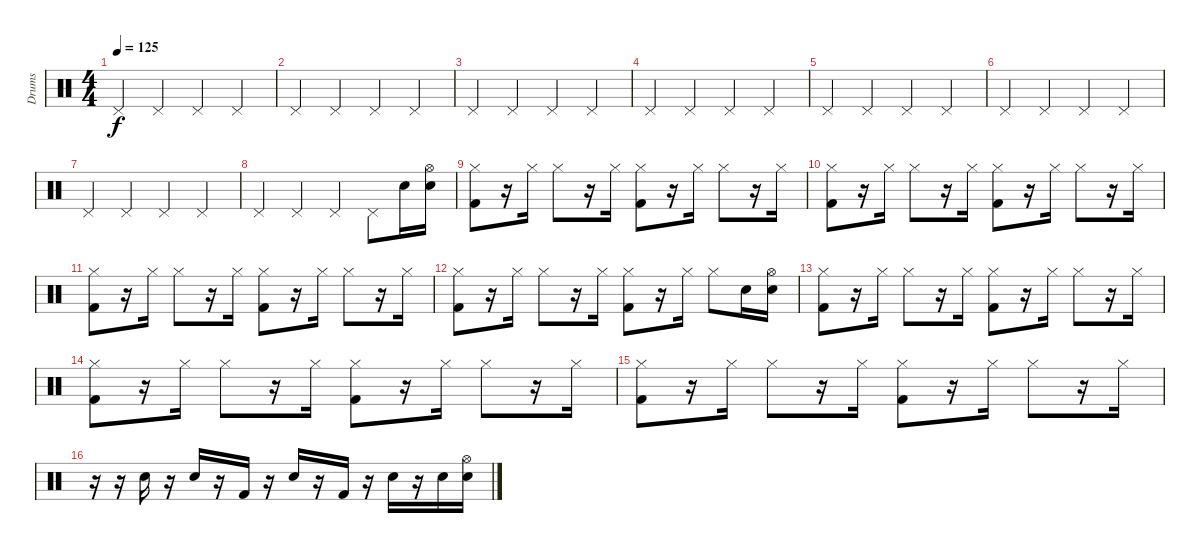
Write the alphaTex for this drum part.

\track ("Drums" "Drums") {instrument percussion}
\staff {score}
\articulation defaults
\ts (4 4)
\tempo 125
\clef neutral
\ks c "Pedal Hi-Hat (hit)".4{dy f} "Pedal Hi-Hat (hit)".4 "Pedal Hi-Hat (hit)".4 "Pedal Hi-Hat (hit)".4
|
"Pedal Hi-Hat (hit)".4 "Pedal Hi-Hat (hit)".4 "Pedal Hi-Hat (hit)".4 "Pedal Hi-Hat (hit)".4 |
"Pedal Hi-Hat (hit)".4 "Pedal Hi-Hat (hit)".4 "Pedal Hi-Hat (hit)".4 "Pedal Hi-Hat (hit)".4 |
"Pedal Hi-Hat (hit)".4 "Pedal Hi-Hat (hit)".4 "Pedal Hi-Hat (hit)".4 "Pedal Hi-Hat (hit)".4 |
"Pedal Hi-Hat (hit)".4 "Pedal Hi-Hat (hit)".4 "Pedal Hi-Hat (hit)".4 "Pedal Hi-Hat (hit)".4 |
"Pedal Hi-Hat (hit)".4 "Pedal Hi-Hat (hit)".4 "Pedal Hi-Hat (hit)".4 "Pedal Hi-Hat (hit)".4 |
"Pedal Hi-Hat (hit)".4 "Pedal Hi-Hat (hit)".4 "Pedal Hi-Hat (hit)".4 "Pedal Hi-Hat (hit)".4 |
"Pedal Hi-Hat (hit)".4 "Pedal Hi-Hat (hit)".4 "Pedal Hi-Hat (hit)".4 "Pedal Hi-Hat (hit)".8 "Electric Snare (hit)".16 ("Hi-Hat (open)" "Electric Snare (hit)").16 |
("Hi-Hat (closed)" "Kick (hit) 2").8 r.16 "Hi-Hat (closed)".16 "Hi-Hat (closed)".8 r.16 "Hi-Hat (closed)".16 ("Hi-Hat (closed)" "Kick (hit) 2").8 r.16 "Hi-Hat (closed)".16 "Hi-Hat (closed)".8 r.16 "Hi-Hat (closed)".16 |
("Hi-Hat (closed)" "Kick (hit) 2").8 r.16 "Hi-Hat (closed)".16 "Hi-Hat (closed)".8 r.16 "Hi-Hat (closed)".16 ("Hi-Hat (closed)" "Kick (hit) 2").8 r.16 "Hi-Hat (closed)".16 "Hi-Hat (closed)".8 r.16 "Hi-Hat (closed)".16 |
("Hi-Hat (closed)" "Kick (hit) 2").8 r.16 "Hi-Hat (closed)".16 "Hi-Hat (closed)".8 r.16 "Hi-Hat (closed)".16 ("Hi-Hat (closed)" "Kick (hit) 2").8 r.16 "Hi-Hat (closed)".16 "Hi-Hat (closed)".8 r.16 "Hi-Hat (closed)".16 |
("Hi-Hat (closed)" "Kick (hit) 2").8 r.16 "Hi-Hat (closed)".16 "Hi-Hat (closed)".8 r.16 "Hi-Hat (closed)".16 ("Hi-Hat (closed)" "Kick (hit) 2").8 r.16 "Hi-Hat (closed)".16 "Hi-Hat (closed)".8 "Electric Snare (hit)".16 ("Hi-Hat (open)" "Electric Snare (hit)").16 |
("Hi-Hat (closed)" "Kick (hit) 2").8 r.16 "Hi-Hat (closed)".16 "Hi-Hat (closed)".8 r.16 "Hi-Hat (closed)".16 ("Hi-Hat (closed)" "Kick (hit) 2").8 r.16 "Hi-Hat (closed)".16 "Hi-Hat (closed)".8 r.16 "Hi-Hat (closed)".16 |
("Hi-Hat (closed)" "Kick (hit) 2").8 r.16 "Hi-Hat (closed)".16 "Hi-Hat (closed)".8 r.16 "Hi-Hat (closed)".16 ("Hi-Hat (closed)" "Kick (hit) 2").8 r.16 "Hi-Hat (closed)".16 "Hi-Hat (closed)".8 r.16 "Hi-Hat (closed)".16 |
("Hi-Hat (closed)" "Kick (hit) 2").8 r.16 "Hi-Hat (closed)".16 "Hi-Hat (closed)".8 r.16 "Hi-Hat (closed)".16 ("Hi-Hat (closed)" "Kick (hit) 2").8 r.16 "Hi-Hat (closed)".16 "Hi-Hat (closed)".8 r.16 "Hi-Hat (closed)".16 |
r.16 r.16 "Electric Snare (hit)".16 r.16 "Electric Snare (hit)".16 r.16 "Kick (hit) 2".16 r.16 "Electric Snare (hit)".16 r.16 "Kick (hit) 2".16 r.16 "Electric Snare (hit)".16 r.16 "Electric Snare (hit)".16 ("Hi-Hat (open)" "Electric Snare (hit)").16
